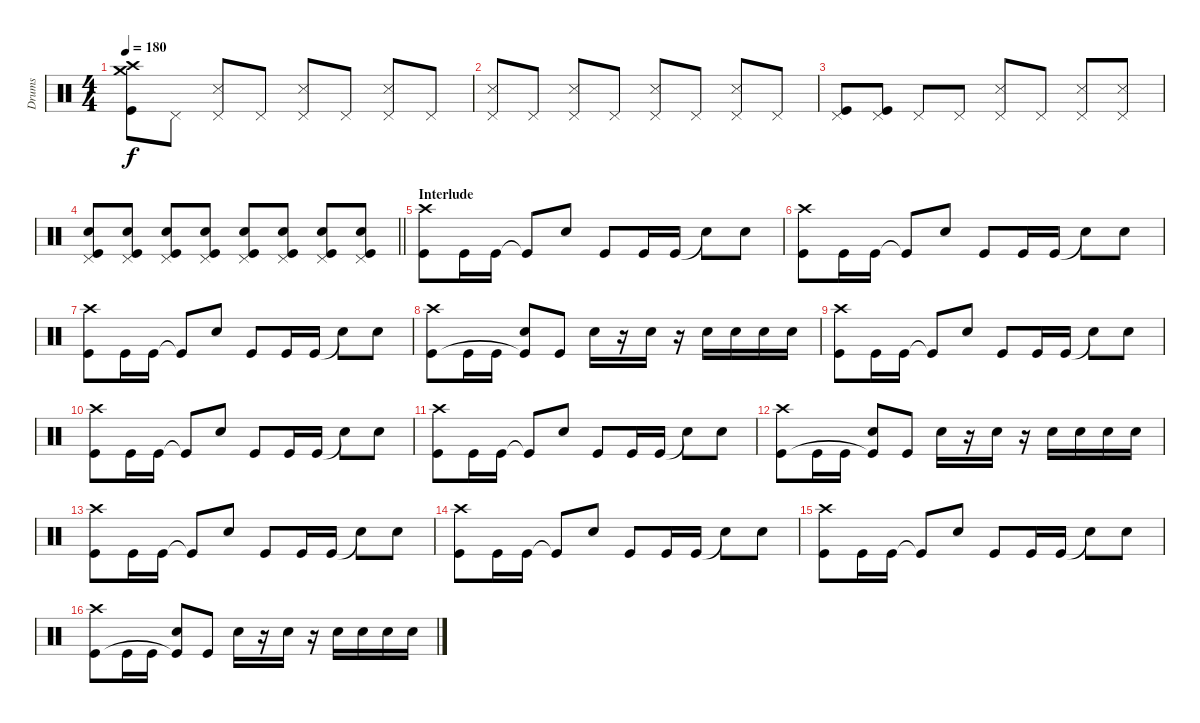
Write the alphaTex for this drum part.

\track ("Drums" "Drums") {instrument percussion}
\staff {score}
\articulation defaults
\ts (4 4)
\tempo 180
\clef neutral
\ks c
("Crash medium (hit)" "Crash high (hit)" "Kick (hit)").8{dy f} "Pedal Hi-Hat (hit)".8 ("Pedal Hi-Hat (hit)" "Snare (side stick) 3").8 "Pedal Hi-Hat (hit)".8 ("Pedal Hi-Hat (hit)" "Snare (side stick) 3").8 "Pedal Hi-Hat (hit)".8 ("Pedal Hi-Hat (hit)" "Snare (side stick) 3").8 "Pedal Hi-Hat (hit)".8 |
("Pedal Hi-Hat (hit)" "Snare (side stick) 3").8 "Pedal Hi-Hat (hit)".8 ("Pedal Hi-Hat (hit)" "Snare (side stick) 3").8 "Pedal Hi-Hat (hit)".8 ("Pedal Hi-Hat (hit)" "Snare (side stick) 3").8 "Pedal Hi-Hat (hit)".8 ("Pedal Hi-Hat (hit)" "Snare (side stick) 3").8 "Pedal Hi-Hat (hit)".8 |
("Pedal Hi-Hat (hit)" "Kick (hit)").8 ("Pedal Hi-Hat (hit)" "Kick (hit)").8 "Pedal Hi-Hat (hit)".8 "Pedal Hi-Hat (hit)".8 ("Pedal Hi-Hat (hit)" "Snare (side stick) 3").8 "Pedal Hi-Hat (hit)".8 ("Pedal Hi-Hat (hit)" "Snare (side stick) 3").8 ("Pedal Hi-Hat (hit)" "Snare (side stick) 3").8 |
\barLineRight lightlight
("Pedal Hi-Hat (hit)" "Snare (hit) 2" "Kick (hit)").8 ("Pedal Hi-Hat (hit)" "Snare (hit) 2" "Kick (hit)").8 ("Pedal Hi-Hat (hit)" "Snare (hit) 2" "Kick (hit)").8 ("Pedal Hi-Hat (hit)" "Snare (hit) 2" "Kick (hit)").8 ("Pedal Hi-Hat (hit)" "Snare (hit) 2" "Kick (hit)").8 ("Pedal Hi-Hat (hit)" "Snare (hit) 2" "Kick (hit)").8 ("Pedal Hi-Hat (hit)" "Snare (hit) 2" "Kick (hit)").8 ("Pedal Hi-Hat (hit)" "Snare (hit) 2" "Kick (hit)").8 |
\section ("" "Interlude")
("Crash high (hit)" "Kick (hit)").8 "Kick (hit)".16 "Kick (hit)".16 "Kick (hit)"{t}.8 "Snare (hit) 2".8 "Kick (hit)".8 "Kick (hit)".16 "Kick (hit)".16 "Snare (hit)"{t}.8 "Snare (hit) 2".8 |
("Crash high (hit)" "Kick (hit)").8 "Kick (hit)".16 "Kick (hit)".16 "Kick (hit)"{t}.8 "Snare (hit) 2".8 "Kick (hit)".8 "Kick (hit)".16 "Kick (hit)".16 "Snare (hit)"{t}.8 "Snare (hit) 2".8 |
("Crash high (hit)" "Kick (hit)").8 "Kick (hit)".16 "Kick (hit)".16 "Kick (hit)"{t}.8 "Snare (hit) 2".8 "Kick (hit)".8 "Kick (hit)".16 "Kick (hit)".16 "Snare (hit)"{t}.8 "Snare (hit) 2".8 |
("Crash high (hit)" "Kick (hit)").8 "Kick (hit)".16 "Kick (hit)".16 ("Snare (hit) 2" "Kick (hit)"{t}).8 "Kick (hit)".8 "Snare (hit) 2".16 r.16 "Snare (hit) 2".16 r.16 "Snare (hit) 2".16 "Snare (hit) 2".16 "Snare (hit) 2".16 "Snare (hit) 2".16 |
("Crash high (hit)" "Kick (hit)").8 "Kick (hit)".16 "Kick (hit)".16 "Kick (hit)"{t}.8 "Snare (hit) 2".8 "Kick (hit)".8 "Kick (hit)".16 "Kick (hit)".16 "Snare (hit)"{t}.8 "Snare (hit) 2".8 |
("Crash high (hit)" "Kick (hit)").8 "Kick (hit)".16 "Kick (hit)".16 "Kick (hit)"{t}.8 "Snare (hit) 2".8 "Kick (hit)".8 "Kick (hit)".16 "Kick (hit)".16 "Snare (hit)"{t}.8 "Snare (hit) 2".8 |
("Crash high (hit)" "Kick (hit)").8 "Kick (hit)".16 "Kick (hit)".16 "Kick (hit)"{t}.8 "Snare (hit) 2".8 "Kick (hit)".8 "Kick (hit)".16 "Kick (hit)".16 "Snare (hit)"{t}.8 "Snare (hit) 2".8 |
("Crash high (hit)" "Kick (hit)").8 "Kick (hit)".16 "Kick (hit)".16 ("Snare (hit) 2" "Kick (hit)"{t}).8 "Kick (hit)".8 "Snare (hit) 2".16 r.16 "Snare (hit) 2".16 r.16 "Snare (hit) 2".16 "Snare (hit) 2".16 "Snare (hit) 2".16 "Snare (hit) 2".16 |
("Crash high (hit)" "Kick (hit)").8 "Kick (hit)".16 "Kick (hit)".16 "Kick (hit)"{t}.8 "Snare (hit) 2".8 "Kick (hit)".8 "Kick (hit)".16 "Kick (hit)".16 "Snare (hit)"{t}.8 "Snare (hit) 2".8 |
("Crash high (hit)" "Kick (hit)").8 "Kick (hit)".16 "Kick (hit)".16 "Kick (hit)"{t}.8 "Snare (hit) 2".8 "Kick (hit)".8 "Kick (hit)".16 "Kick (hit)".16 "Snare (hit)"{t}.8 "Snare (hit) 2".8 |
("Crash high (hit)" "Kick (hit)").8 "Kick (hit)".16 "Kick (hit)".16 "Kick (hit)"{t}.8 "Snare (hit) 2".8 "Kick (hit)".8 "Kick (hit)".16 "Kick (hit)".16 "Snare (hit)"{t}.8 "Snare (hit) 2".8 |
("Crash high (hit)" "Kick (hit)").8 "Kick (hit)".16 "Kick (hit)".16 ("Snare (hit) 2" "Kick (hit)"{t}).8 "Kick (hit)".8 "Snare (hit) 2".16 r.16 "Snare (hit) 2".16 r.16 "Snare (hit) 2".16 "Snare (hit) 2".16 "Snare (hit) 2".16 "Snare (hit) 2".16
